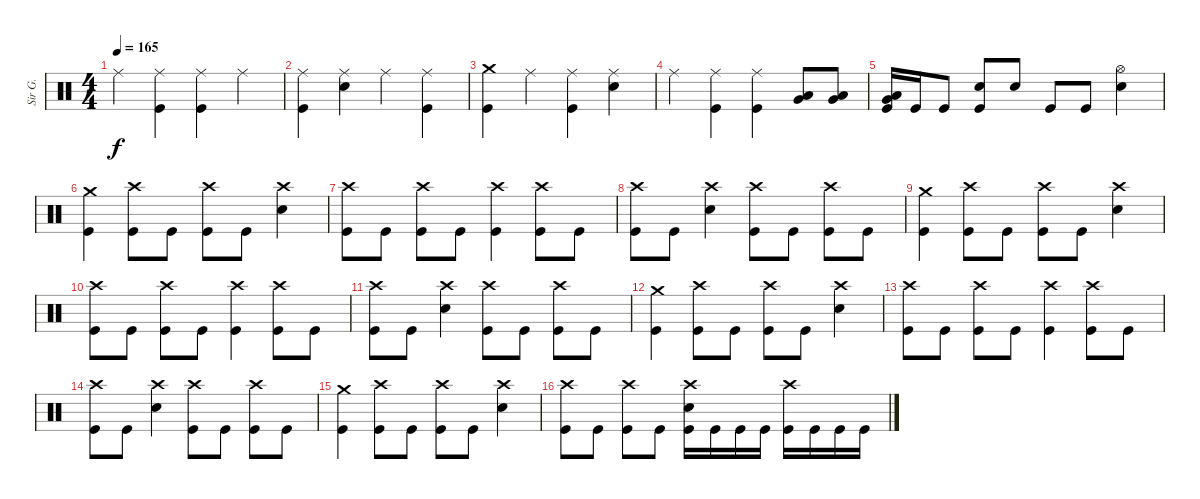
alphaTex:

\track ("Sir G." "Sir G.") {instrument percussion}
\staff {score}
\articulation defaults
\ts (4 4)
\tempo 165
\clef neutral
\ks c "Ride (middle)".4{dy f}
("Ride (middle)" "Kick (hit)").4 ("Ride (middle)" "Kick (hit)").4 "Ride (middle)".4 |
("Ride (middle)" "Kick (hit)").4 ("Ride (middle)" "Electric Snare (hit)").4 "Ride (middle)".4 ("Ride (middle)" "Kick (hit)").4 |
("Crash medium (hit)" "Kick (hit)").4 "Ride (middle)".4 ("Ride (middle)" "Kick (hit)").4 ("Ride (middle)" "Electric Snare (hit)").4 |
"Ride (middle)".4 ("Ride (middle)" "Kick (hit)").4 ("Ride (middle)" "Kick (hit)").4 ("Low Tom (hit)" "Very Low Tom (hit)").8 ("Low Tom (hit)" "Very Low Tom (hit)").8 |
("Low Tom (hit)" "Very Low Tom (hit)" "Kick (hit)").16 "Kick (hit)".16 "Kick (hit)".8 ("Electric Snare (hit)" "Kick (hit)").8 "Electric Snare (hit)".8 "Kick (hit)".8 "Kick (hit)".8 ("Hi-Hat (open)" "Electric Snare (hit)").4 |
("Crash medium (hit)" "Kick (hit)").4 ("Crash high (hit)" "Kick (hit)").8 "Kick (hit)".8 ("Crash high (hit)" "Kick (hit)").8 "Kick (hit)".8 ("Crash high (hit)" "Electric Snare (hit)").4 |
("Crash high (hit)" "Kick (hit)").8 "Kick (hit)".8 ("Crash high (hit)" "Kick (hit)").8 "Kick (hit)".8 ("Crash high (hit)" "Kick (hit)").4 ("Crash high (hit)" "Kick (hit)").8 "Kick (hit)".8 |
("Crash high (hit)" "Kick (hit)").8 "Kick (hit)".8 ("Crash high (hit)" "Electric Snare (hit)").4 ("Crash high (hit)" "Kick (hit)").8 "Kick (hit)".8 ("Crash high (hit)" "Kick (hit)").8 "Kick (hit)".8 |
("Crash medium (hit)" "Kick (hit)").4 ("Crash high (hit)" "Kick (hit)").8 "Kick (hit)".8 ("Crash high (hit)" "Kick (hit)").8 "Kick (hit)".8 ("Crash high (hit)" "Electric Snare (hit)").4 |
("Crash high (hit)" "Kick (hit)").8 "Kick (hit)".8 ("Crash high (hit)" "Kick (hit)").8 "Kick (hit)".8 ("Crash high (hit)" "Kick (hit)").4 ("Crash high (hit)" "Kick (hit)").8 "Kick (hit)".8 |
("Crash high (hit)" "Kick (hit)").8 "Kick (hit)".8 ("Crash high (hit)" "Electric Snare (hit)").4 ("Crash high (hit)" "Kick (hit)").8 "Kick (hit)".8 ("Crash high (hit)" "Kick (hit)").8 "Kick (hit)".8 |
("Crash medium (hit)" "Kick (hit)").4 ("Crash high (hit)" "Kick (hit)").8 "Kick (hit)".8 ("Crash high (hit)" "Kick (hit)").8 "Kick (hit)".8 ("Crash high (hit)" "Electric Snare (hit)").4 |
("Crash high (hit)" "Kick (hit)").8 "Kick (hit)".8 ("Crash high (hit)" "Kick (hit)").8 "Kick (hit)".8 ("Crash high (hit)" "Kick (hit)").4 ("Crash high (hit)" "Kick (hit)").8 "Kick (hit)".8 |
("Crash high (hit)" "Kick (hit)").8 "Kick (hit)".8 ("Crash high (hit)" "Electric Snare (hit)").4 ("Crash high (hit)" "Kick (hit)").8 "Kick (hit)".8 ("Crash high (hit)" "Kick (hit)").8 "Kick (hit)".8 |
("Crash medium (hit)" "Kick (hit)").4 ("Crash high (hit)" "Kick (hit)").8 "Kick (hit)".8 ("Crash high (hit)" "Kick (hit)").8 "Kick (hit)".8 ("Crash high (hit)" "Electric Snare (hit)").4 |
("Crash high (hit)" "Kick (hit)").8 "Kick (hit)".8 ("Crash high (hit)" "Kick (hit)").8 "Kick (hit)".8 ("Crash high (hit)" "Electric Snare (hit)" "Kick (hit)").16 "Kick (hit)".16 "Kick (hit)".16 "Kick (hit)".16 ("Crash high (hit)" "Kick (hit)").16 "Kick (hit)".16 "Kick (hit)".16 "Kick (hit)".16
